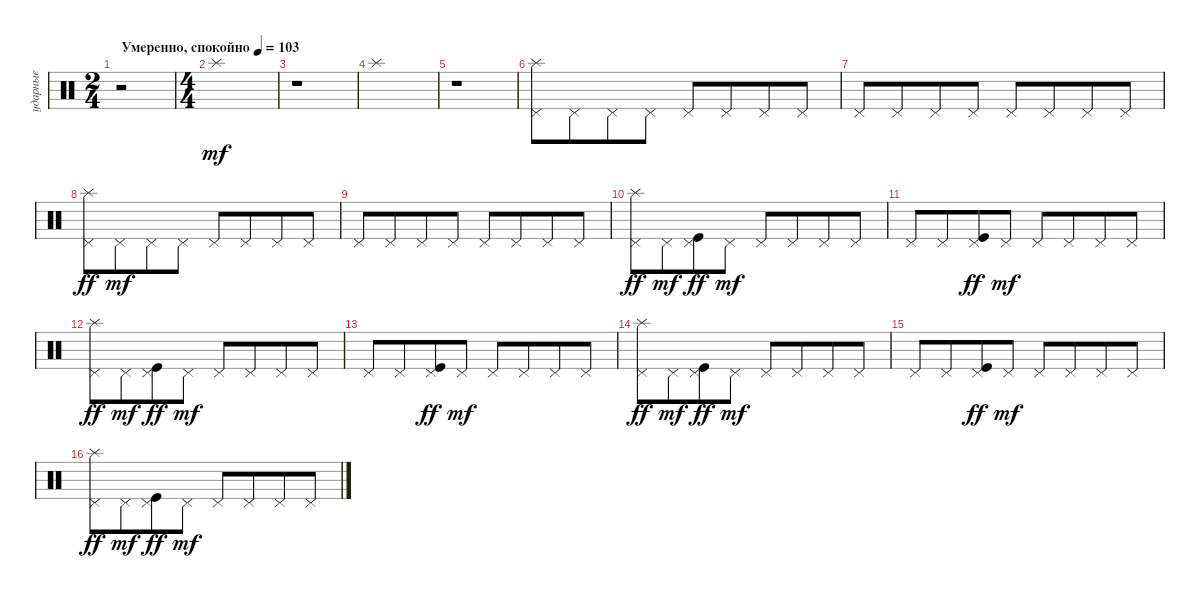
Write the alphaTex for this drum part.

\track ("ударные" "ударные") {instrument percussion}
\staff {score}
\articulation defaults
\ts (2 4)
\tempo (103 "Умеренно, спокойно")
\clef neutral
\ks aminor
r.2{dy mf} |
\ts (4 4)
"Splash (hit)".1 |
r.1 |
"Splash (hit)".1 |
r.1 |
("Pedal Hi-Hat (hit)" "Splash (hit)").8 "Pedal Hi-Hat (hit)".8{beam merge} "Pedal Hi-Hat (hit)".8 "Pedal Hi-Hat (hit)".8 "Pedal Hi-Hat (hit)".8 "Pedal Hi-Hat (hit)".8{beam merge} "Pedal Hi-Hat (hit)".8 "Pedal Hi-Hat (hit)".8 |
"Pedal Hi-Hat (hit)".8 "Pedal Hi-Hat (hit)".8{beam merge} "Pedal Hi-Hat (hit)".8 "Pedal Hi-Hat (hit)".8 "Pedal Hi-Hat (hit)".8 "Pedal Hi-Hat (hit)".8{beam merge} "Pedal Hi-Hat (hit)".8 "Pedal Hi-Hat (hit)".8 |
("Pedal Hi-Hat (hit)" "Splash (hit)").8{dy ff} "Pedal Hi-Hat (hit)".8{dy mf beam merge} "Pedal Hi-Hat (hit)".8 "Pedal Hi-Hat (hit)".8 "Pedal Hi-Hat (hit)".8 "Pedal Hi-Hat (hit)".8{beam merge} "Pedal Hi-Hat (hit)".8 "Pedal Hi-Hat (hit)".8 |
"Pedal Hi-Hat (hit)".8 "Pedal Hi-Hat (hit)".8{beam merge} "Pedal Hi-Hat (hit)".8 "Pedal Hi-Hat (hit)".8 "Pedal Hi-Hat (hit)".8 "Pedal Hi-Hat (hit)".8{beam merge} "Pedal Hi-Hat (hit)".8 "Pedal Hi-Hat (hit)".8 |
("Pedal Hi-Hat (hit)" "Splash (hit)").8{dy ff} "Pedal Hi-Hat (hit)".8{dy mf beam merge} ("Pedal Hi-Hat (hit)" "Kick (hit)").8{dy ff} "Pedal Hi-Hat (hit)".8{dy mf} "Pedal Hi-Hat (hit)".8 "Pedal Hi-Hat (hit)".8{beam merge} "Pedal Hi-Hat (hit)".8 "Pedal Hi-Hat (hit)".8 |
"Pedal Hi-Hat (hit)".8 "Pedal Hi-Hat (hit)".8{beam merge} ("Pedal Hi-Hat (hit)" "Kick (hit)").8{dy ff} "Pedal Hi-Hat (hit)".8{dy mf} "Pedal Hi-Hat (hit)".8 "Pedal Hi-Hat (hit)".8{beam merge} "Pedal Hi-Hat (hit)".8 "Pedal Hi-Hat (hit)".8 |
("Pedal Hi-Hat (hit)" "Splash (hit)").8{dy ff} "Pedal Hi-Hat (hit)".8{dy mf beam merge} ("Pedal Hi-Hat (hit)" "Kick (hit)").8{dy ff} "Pedal Hi-Hat (hit)".8{dy mf} "Pedal Hi-Hat (hit)".8 "Pedal Hi-Hat (hit)".8{beam merge} "Pedal Hi-Hat (hit)".8 "Pedal Hi-Hat (hit)".8 |
"Pedal Hi-Hat (hit)".8 "Pedal Hi-Hat (hit)".8{beam merge} ("Pedal Hi-Hat (hit)" "Kick (hit)").8{dy ff} "Pedal Hi-Hat (hit)".8{dy mf} "Pedal Hi-Hat (hit)".8 "Pedal Hi-Hat (hit)".8{beam merge} "Pedal Hi-Hat (hit)".8 "Pedal Hi-Hat (hit)".8 |
("Pedal Hi-Hat (hit)" "Splash (hit)").8{dy ff} "Pedal Hi-Hat (hit)".8{dy mf beam merge} ("Pedal Hi-Hat (hit)" "Kick (hit)").8{dy ff} "Pedal Hi-Hat (hit)".8{dy mf} "Pedal Hi-Hat (hit)".8 "Pedal Hi-Hat (hit)".8{beam merge} "Pedal Hi-Hat (hit)".8 "Pedal Hi-Hat (hit)".8 |
"Pedal Hi-Hat (hit)".8 "Pedal Hi-Hat (hit)".8{beam merge} ("Pedal Hi-Hat (hit)" "Kick (hit)").8{dy ff} "Pedal Hi-Hat (hit)".8{dy mf} "Pedal Hi-Hat (hit)".8 "Pedal Hi-Hat (hit)".8{beam merge} "Pedal Hi-Hat (hit)".8 "Pedal Hi-Hat (hit)".8 |
("Pedal Hi-Hat (hit)" "Splash (hit)").8{dy ff} "Pedal Hi-Hat (hit)".8{dy mf beam merge} ("Pedal Hi-Hat (hit)" "Kick (hit)").8{dy ff} "Pedal Hi-Hat (hit)".8{dy mf} "Pedal Hi-Hat (hit)".8 "Pedal Hi-Hat (hit)".8{beam merge} "Pedal Hi-Hat (hit)".8 "Pedal Hi-Hat (hit)".8
